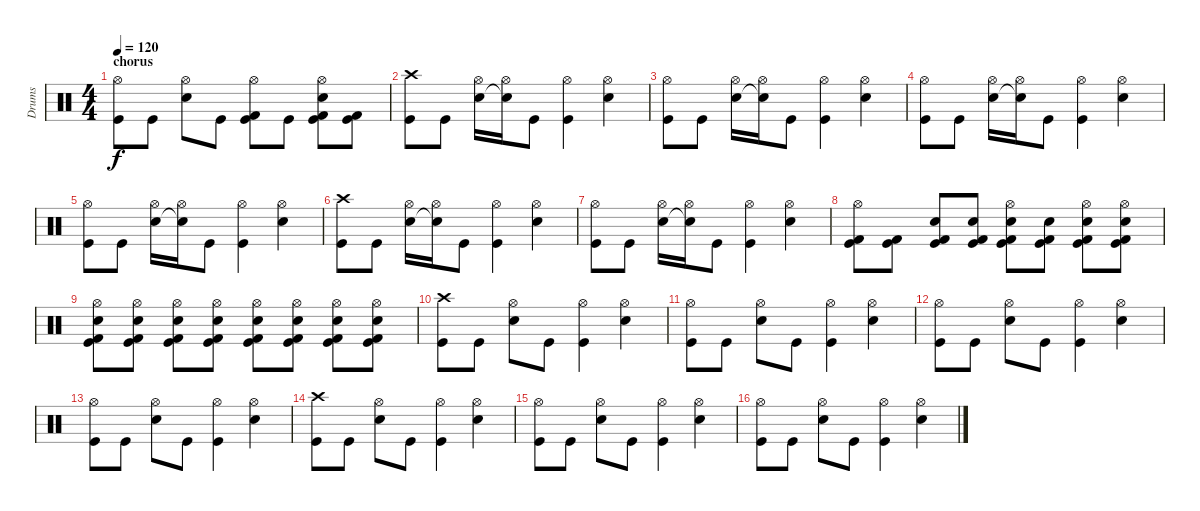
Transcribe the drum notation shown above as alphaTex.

\track ("Drums" "Drums") {instrument percussion}
\staff {score}
\articulation defaults
\ts (4 4)
\section ("" "chorus")
\tempo 120
\clef neutral
\ks c
("Hi-Hat (open)" "Kick (hit)").8{dy f} "Kick (hit)".8 ("Hi-Hat (open)" "Electric Snare (hit)").8 "Kick (hit)".8 ("Hi-Hat (open)" "Kick (hit) 2" "Kick (hit)").8 "Kick (hit)".8 ("Hi-Hat (open)" "Electric Snare (hit)" "Kick (hit) 2" "Kick (hit)").8 ("Kick (hit) 2" "Kick (hit)").8 |
("Crash high (hit)" "Kick (hit)").8 "Kick (hit)".8 ("Hi-Hat (open)" "Electric Snare (hit)").16 ("Hi-Hat (open)" "Snare (hit)"{t}).16 "Kick (hit)".8 ("Hi-Hat (open)" "Kick (hit)").4 ("Hi-Hat (open)" "Electric Snare (hit)").4 |
("Hi-Hat (open)" "Kick (hit)").8 "Kick (hit)".8 ("Hi-Hat (open)" "Electric Snare (hit)").16 ("Hi-Hat (open)" "Snare (hit)"{t}).16 "Kick (hit)".8 ("Hi-Hat (open)" "Kick (hit)").4 ("Hi-Hat (open)" "Electric Snare (hit)").4 |
("Hi-Hat (open)" "Kick (hit)").8 "Kick (hit)".8 ("Hi-Hat (open)" "Electric Snare (hit)").16 ("Hi-Hat (open)" "Snare (hit)"{t}).16 "Kick (hit)".8 ("Hi-Hat (open)" "Kick (hit)").4 ("Hi-Hat (open)" "Electric Snare (hit)").4 |
("Hi-Hat (open)" "Kick (hit)").8 "Kick (hit)".8 ("Hi-Hat (open)" "Electric Snare (hit)").16 ("Hi-Hat (open)" "Snare (hit)"{t}).16 "Kick (hit)".8 ("Hi-Hat (open)" "Kick (hit)").4 ("Hi-Hat (open)" "Electric Snare (hit)").4 |
("Crash high (hit)" "Kick (hit)").8 "Kick (hit)".8 ("Hi-Hat (open)" "Electric Snare (hit)").16 ("Hi-Hat (open)" "Snare (hit)"{t}).16 "Kick (hit)".8 ("Hi-Hat (open)" "Kick (hit)").4 ("Hi-Hat (open)" "Electric Snare (hit)").4 |
("Hi-Hat (open)" "Kick (hit)").8 "Kick (hit)".8 ("Hi-Hat (open)" "Electric Snare (hit)").16 ("Hi-Hat (open)" "Snare (hit)"{t}).16 "Kick (hit)".8 ("Hi-Hat (open)" "Kick (hit)").4 ("Hi-Hat (open)" "Electric Snare (hit)").4 |
("Hi-Hat (open)" "Kick (hit) 2" "Kick (hit)").8 ("Kick (hit) 2" "Kick (hit)").8 ("Electric Snare (hit)" "Kick (hit) 2" "Kick (hit)").8 ("Electric Snare (hit)" "Kick (hit) 2" "Kick (hit)").8 ("Hi-Hat (open)" "Electric Snare (hit)" "Kick (hit) 2" "Kick (hit)").8 ("Electric Snare (hit)" "Kick (hit) 2" "Kick (hit)").8 ("Hi-Hat (open)" "Electric Snare (hit)" "Kick (hit) 2" "Kick (hit)").8 ("Hi-Hat (open)" "Electric Snare (hit)" "Kick (hit) 2" "Kick (hit)").8 |
("Hi-Hat (open)" "Electric Snare (hit)" "Kick (hit) 2" "Kick (hit)").8 ("Hi-Hat (open)" "Electric Snare (hit)" "Kick (hit) 2" "Kick (hit)").8 ("Hi-Hat (open)" "Electric Snare (hit)" "Kick (hit) 2" "Kick (hit)").8 ("Hi-Hat (open)" "Electric Snare (hit)" "Kick (hit) 2" "Kick (hit)").8 ("Hi-Hat (open)" "Electric Snare (hit)" "Kick (hit) 2" "Kick (hit)").8 ("Hi-Hat (open)" "Electric Snare (hit)" "Kick (hit) 2" "Kick (hit)").8 ("Hi-Hat (open)" "Electric Snare (hit)" "Kick (hit) 2" "Kick (hit)").8 ("Hi-Hat (open)" "Electric Snare (hit)" "Kick (hit) 2" "Kick (hit)").8 |
("Crash high (hit)" "Kick (hit)").8 "Kick (hit)".8 ("Hi-Hat (open)" "Electric Snare (hit)").8 "Kick (hit)".8 ("Hi-Hat (open)" "Kick (hit)").4 ("Hi-Hat (open)" "Electric Snare (hit)").4 |
("Hi-Hat (open)" "Kick (hit)").8 "Kick (hit)".8 ("Hi-Hat (open)" "Electric Snare (hit)").8 "Kick (hit)".8 ("Hi-Hat (open)" "Kick (hit)").4 ("Hi-Hat (open)" "Electric Snare (hit)").4 |
("Hi-Hat (open)" "Kick (hit)").8 "Kick (hit)".8 ("Hi-Hat (open)" "Electric Snare (hit)").8 "Kick (hit)".8 ("Hi-Hat (open)" "Kick (hit)").4 ("Hi-Hat (open)" "Electric Snare (hit)").4 |
("Hi-Hat (open)" "Kick (hit)").8 "Kick (hit)".8 ("Hi-Hat (open)" "Electric Snare (hit)").8 "Kick (hit)".8 ("Hi-Hat (open)" "Kick (hit)").4 ("Hi-Hat (open)" "Electric Snare (hit)").4 |
("Crash high (hit)" "Kick (hit)").8 "Kick (hit)".8 ("Hi-Hat (open)" "Electric Snare (hit)").8 "Kick (hit)".8 ("Hi-Hat (open)" "Kick (hit)").4 ("Hi-Hat (open)" "Electric Snare (hit)").4 |
("Hi-Hat (open)" "Kick (hit)").8 "Kick (hit)".8 ("Hi-Hat (open)" "Electric Snare (hit)").8 "Kick (hit)".8 ("Hi-Hat (open)" "Kick (hit)").4 ("Hi-Hat (open)" "Electric Snare (hit)").4 |
("Hi-Hat (open)" "Kick (hit)").8 "Kick (hit)".8 ("Hi-Hat (open)" "Electric Snare (hit)").8 "Kick (hit)".8 ("Hi-Hat (open)" "Kick (hit)").4 ("Hi-Hat (open)" "Electric Snare (hit)").4
